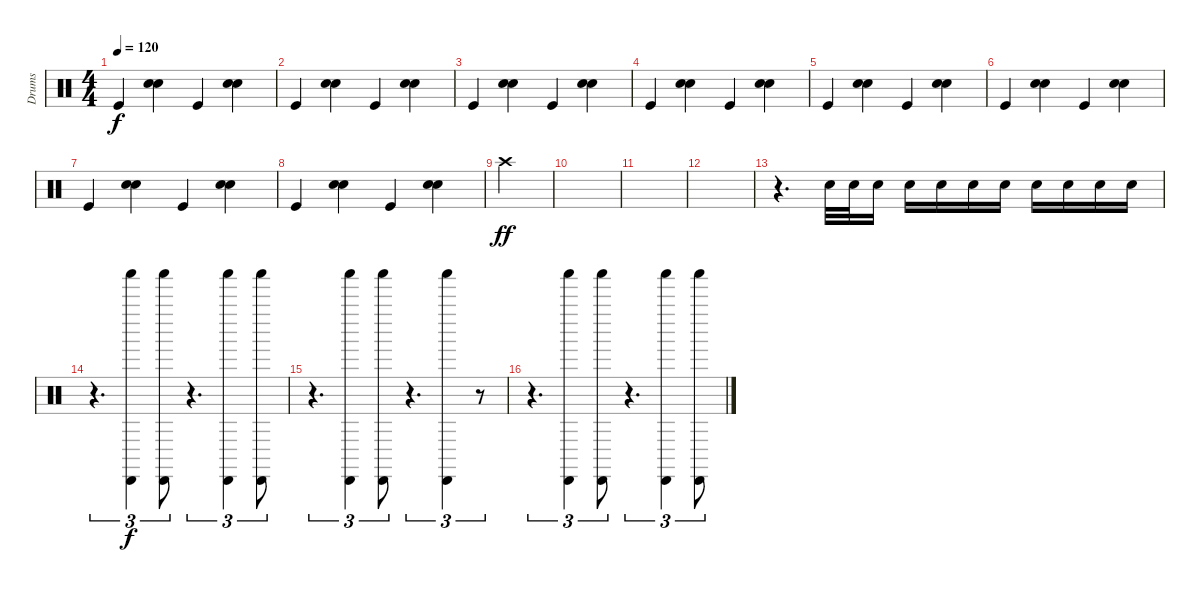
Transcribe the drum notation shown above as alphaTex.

\track ("Drums" "Drums") {instrument percussion}
\staff {score}
\articulation defaults
\ts (4 4)
\tempo 120
\clef neutral
\ks c "Kick (hit)".4{dy f}
("Snare (hit) 2" "Hand Clap (hit)").4 "Kick (hit)".4 ("Snare (hit) 2" "Hand Clap (hit)").4 |
"Kick (hit)".4 ("Snare (hit) 2" "Hand Clap (hit)").4 "Kick (hit)".4 ("Snare (hit) 2" "Hand Clap (hit)").4 |
"Kick (hit)".4 ("Snare (hit) 2" "Hand Clap (hit)").4 "Kick (hit)".4 ("Snare (hit) 2" "Hand Clap (hit)").4 |
"Kick (hit)".4 ("Snare (hit) 2" "Hand Clap (hit)").4 "Kick (hit)".4 ("Snare (hit) 2" "Hand Clap (hit)").4 |
"Kick (hit)".4 ("Snare (hit) 2" "Hand Clap (hit)").4 "Kick (hit)".4 ("Snare (hit) 2" "Hand Clap (hit)").4 |
"Kick (hit)".4 ("Snare (hit) 2" "Hand Clap (hit)").4 "Kick (hit)".4 ("Snare (hit) 2" "Hand Clap (hit)").4 |
"Kick (hit)".4 ("Snare (hit) 2" "Hand Clap (hit)").4 "Kick (hit)".4 ("Snare (hit) 2" "Hand Clap (hit)").4 |
"Kick (hit)".4 ("Snare (hit) 2" "Hand Clap (hit)").4 "Kick (hit)".4 ("Snare (hit) 2" "Hand Clap (hit)").4 |
"Crash high (hit)".4{dy ff} |
|
|
|
r.4{d} "Snare (hit) 2".32 "Snare (hit) 2".32 "Snare (hit) 2".16 "Snare (hit) 2".16 "Snare (hit) 2".16 "Snare (hit) 2".16 "Snare (hit) 2".16 "Snare (hit) 2".16 "Snare (hit) 2".16 "Snare (hit) 2".16 "Snare (hit) 2".16 |
r.4{d tu (3 2)} ("Cabasa (hit)" "Shaker (hit)").4{tu (3 2) dy f} ("Cabasa (hit)" "Shaker (hit)").8{tu (3 2)} r.4{d tu (3 2)} ("Cabasa (hit)" "Shaker (hit)").4{tu (3 2)} ("Cabasa (hit)" "Shaker (hit)").8{tu (3 2)} |
r.4{d tu (3 2)} ("Cabasa (hit)" "Shaker (hit)").4{tu (3 2)} ("Cabasa (hit)" "Shaker (hit)").8{tu (3 2)} r.4{d tu (3 2)} ("Cabasa (hit)" "Shaker (hit)").4{tu (3 2)} r.8{tu (3 2)} |
r.4{d tu (3 2)} ("Cabasa (hit)" "Shaker (hit)").4{tu (3 2)} ("Cabasa (hit)" "Shaker (hit)").8{tu (3 2)} r.4{d tu (3 2)} ("Cabasa (hit)" "Shaker (hit)").4{tu (3 2)} ("Cabasa (hit)" "Shaker (hit)").8{tu (3 2)}
